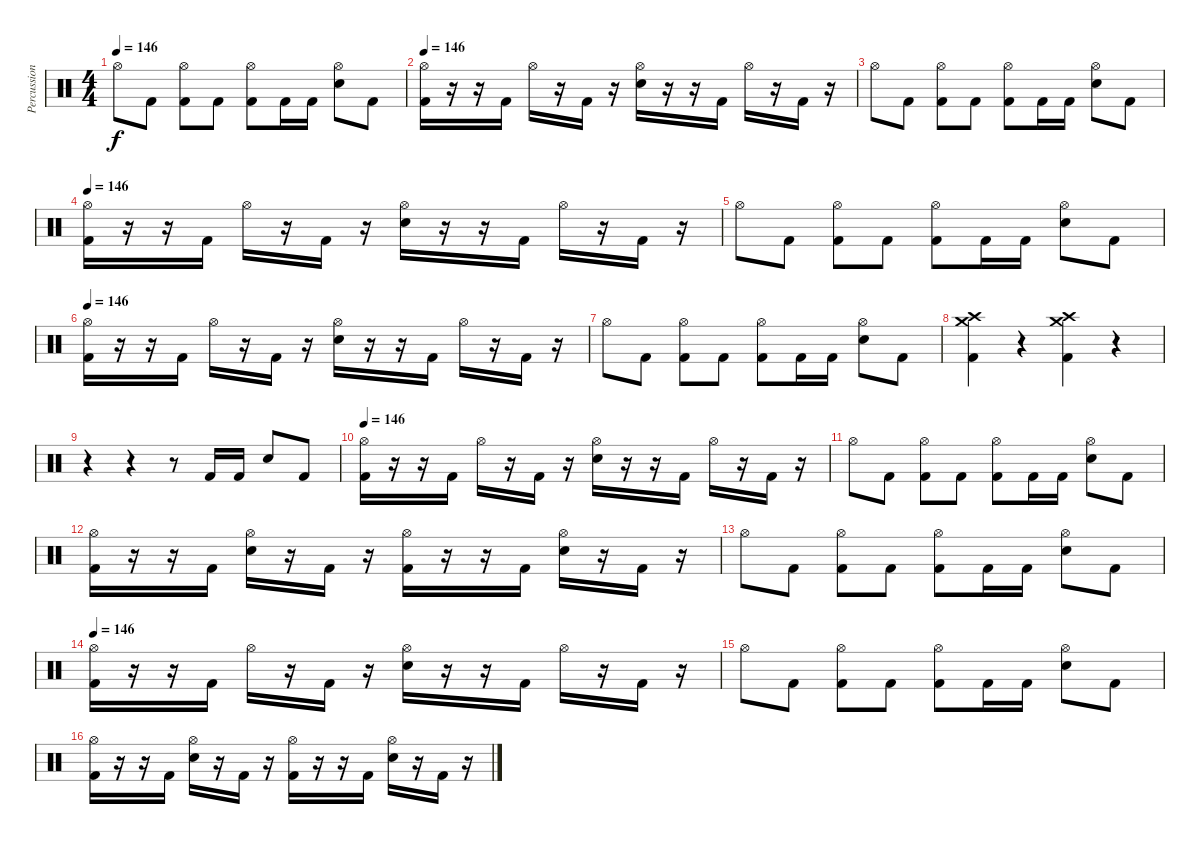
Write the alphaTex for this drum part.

\track ("Percussion" "Percussion") {instrument percussion}
\staff {score}
\articulation defaults
\ts (4 4)
\tempo 146
\clef neutral
\ks c "Hi-Hat (open)".8{dy f} "Kick (hit) 2".8
("Hi-Hat (open)" "Kick (hit) 2").8 "Kick (hit) 2".8 ("Hi-Hat (open)" "Kick (hit) 2").8 "Kick (hit) 2".16 "Kick (hit) 2".16 ("Hi-Hat (open)" "Electric Snare (hit)").8 "Kick (hit) 2".8 |
\tempo 146
("Hi-Hat (open)" "Kick (hit) 2").16 r.16 r.16 "Kick (hit) 2".16 "Hi-Hat (open)".16 r.16 "Kick (hit) 2".16 r.16 ("Hi-Hat (open)" "Electric Snare (hit)").16 r.16 r.16 "Kick (hit) 2".16 "Hi-Hat (open)".16 r.16 "Kick (hit) 2".16 r.16 |
"Hi-Hat (open)".8 "Kick (hit) 2".8 ("Hi-Hat (open)" "Kick (hit) 2").8 "Kick (hit) 2".8 ("Hi-Hat (open)" "Kick (hit) 2").8 "Kick (hit) 2".16 "Kick (hit) 2".16 ("Hi-Hat (open)" "Electric Snare (hit)").8 "Kick (hit) 2".8 |
\tempo 146
("Hi-Hat (open)" "Kick (hit) 2").16 r.16 r.16 "Kick (hit) 2".16 "Hi-Hat (open)".16 r.16 "Kick (hit) 2".16 r.16 ("Hi-Hat (open)" "Electric Snare (hit)").16 r.16 r.16 "Kick (hit) 2".16 "Hi-Hat (open)".16 r.16 "Kick (hit) 2".16 r.16 |
"Hi-Hat (open)".8 "Kick (hit) 2".8 ("Hi-Hat (open)" "Kick (hit) 2").8 "Kick (hit) 2".8 ("Hi-Hat (open)" "Kick (hit) 2").8 "Kick (hit) 2".16 "Kick (hit) 2".16 ("Hi-Hat (open)" "Electric Snare (hit)").8 "Kick (hit) 2".8 |
\tempo 146
("Hi-Hat (open)" "Kick (hit) 2").16 r.16 r.16 "Kick (hit) 2".16 "Hi-Hat (open)".16 r.16 "Kick (hit) 2".16 r.16 ("Hi-Hat (open)" "Electric Snare (hit)").16 r.16 r.16 "Kick (hit) 2".16 "Hi-Hat (open)".16 r.16 "Kick (hit) 2".16 r.16 |
"Hi-Hat (open)".8 "Kick (hit) 2".8 ("Hi-Hat (open)" "Kick (hit) 2").8 "Kick (hit) 2".8 ("Hi-Hat (open)" "Kick (hit) 2").8 "Kick (hit) 2".16 "Kick (hit) 2".16 ("Hi-Hat (open)" "Electric Snare (hit)").8 "Kick (hit) 2".8 |
("Crash high (hit)" "Crash medium (hit)" "Kick (hit) 2").4 r.4 ("Crash high (hit)" "Crash medium (hit)" "Kick (hit) 2").4 r.4 |
r.4 r.4 r.8 "Kick (hit) 2".16 "Kick (hit) 2".16 "Electric Snare (hit)".8 "Kick (hit) 2".8 |
\tempo 146
("Hi-Hat (open)" "Kick (hit) 2").16 r.16 r.16 "Kick (hit) 2".16 "Hi-Hat (open)".16 r.16 "Kick (hit) 2".16 r.16 ("Hi-Hat (open)" "Electric Snare (hit)").16 r.16 r.16 "Kick (hit) 2".16 "Hi-Hat (open)".16 r.16 "Kick (hit) 2".16 r.16 |
"Hi-Hat (open)".8 "Kick (hit) 2".8 ("Hi-Hat (open)" "Kick (hit) 2").8 "Kick (hit) 2".8 ("Hi-Hat (open)" "Kick (hit) 2").8 "Kick (hit) 2".16 "Kick (hit) 2".16 ("Hi-Hat (open)" "Electric Snare (hit)").8 "Kick (hit) 2".8 |
("Hi-Hat (open)" "Kick (hit) 2").16 r.16 r.16 "Kick (hit) 2".16 ("Hi-Hat (open)" "Electric Snare (hit)").16 r.16 "Kick (hit) 2".16 r.16 ("Hi-Hat (open)" "Kick (hit) 2").16 r.16 r.16 "Kick (hit) 2".16 ("Hi-Hat (open)" "Electric Snare (hit)").16 r.16 "Kick (hit) 2".16 r.16 |
"Hi-Hat (open)".8 "Kick (hit) 2".8 ("Hi-Hat (open)" "Kick (hit) 2").8 "Kick (hit) 2".8 ("Hi-Hat (open)" "Kick (hit) 2").8 "Kick (hit) 2".16 "Kick (hit) 2".16 ("Hi-Hat (open)" "Electric Snare (hit)").8 "Kick (hit) 2".8 |
\tempo 146
("Hi-Hat (open)" "Kick (hit) 2").16 r.16 r.16 "Kick (hit) 2".16 "Hi-Hat (open)".16 r.16 "Kick (hit) 2".16 r.16 ("Hi-Hat (open)" "Electric Snare (hit)").16 r.16 r.16 "Kick (hit) 2".16 "Hi-Hat (open)".16 r.16 "Kick (hit) 2".16 r.16 |
"Hi-Hat (open)".8 "Kick (hit) 2".8 ("Hi-Hat (open)" "Kick (hit) 2").8 "Kick (hit) 2".8 ("Hi-Hat (open)" "Kick (hit) 2").8 "Kick (hit) 2".16 "Kick (hit) 2".16 ("Hi-Hat (open)" "Electric Snare (hit)").8 "Kick (hit) 2".8 |
("Hi-Hat (open)" "Kick (hit) 2").16 r.16 r.16 "Kick (hit) 2".16 ("Hi-Hat (open)" "Electric Snare (hit)").16 r.16 "Kick (hit) 2".16 r.16 ("Hi-Hat (open)" "Kick (hit) 2").16 r.16 r.16 "Kick (hit) 2".16 ("Hi-Hat (open)" "Electric Snare (hit)").16 r.16 "Kick (hit) 2".16 r.16
